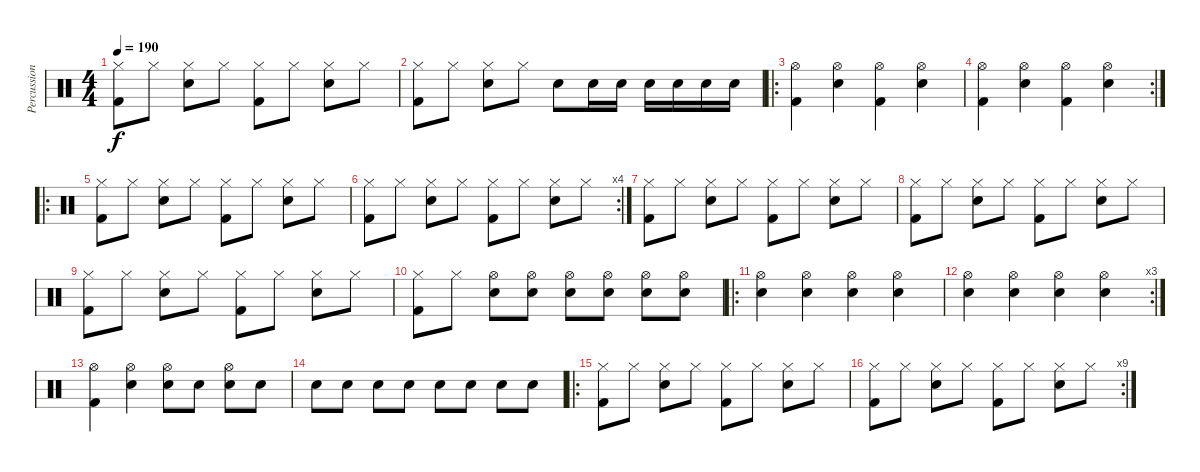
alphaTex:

\track ("Percussion" "Percussion") {instrument percussion}
\staff {score}
\articulation defaults
\ts (4 4)
\tempo 190
\clef neutral
\ks c
("Hi-Hat (closed)" "Kick (hit) 2").8{dy f} "Hi-Hat (closed)".8 ("Hi-Hat (closed)" "Snare (hit) 2").8 "Hi-Hat (closed)".8 ("Hi-Hat (closed)" "Kick (hit) 2").8 "Hi-Hat (closed)".8 ("Hi-Hat (closed)" "Snare (hit) 2").8 "Hi-Hat (closed)".8 |
("Hi-Hat (closed)" "Kick (hit) 2").8 "Hi-Hat (closed)".8 ("Hi-Hat (closed)" "Snare (hit) 2").8 "Hi-Hat (closed)".8 "Snare (hit) 2".8 "Snare (hit) 2".16 "Snare (hit) 2".16 "Snare (hit) 2".16 "Snare (hit) 2".16 "Snare (hit) 2".16 "Snare (hit) 2".16 |
\ro
("Hi-Hat (open)" "Kick (hit) 2").4 ("Hi-Hat (open)" "Snare (hit) 2").4 ("Hi-Hat (open)" "Kick (hit) 2").4 ("Hi-Hat (open)" "Snare (hit) 2").4 |
\rc 2
("Hi-Hat (open)" "Kick (hit) 2").4 ("Hi-Hat (open)" "Snare (hit) 2").4 ("Hi-Hat (open)" "Kick (hit) 2").4 ("Hi-Hat (open)" "Snare (hit) 2").4 |
\ro
("Hi-Hat (closed)" "Kick (hit) 2").8 "Hi-Hat (closed)".8 ("Hi-Hat (closed)" "Snare (hit) 2").8 "Hi-Hat (closed)".8 ("Hi-Hat (closed)" "Kick (hit) 2").8 "Hi-Hat (closed)".8 ("Hi-Hat (closed)" "Snare (hit) 2").8 "Hi-Hat (closed)".8 |
\rc 4
("Hi-Hat (closed)" "Kick (hit) 2").8 "Hi-Hat (closed)".8 ("Hi-Hat (closed)" "Snare (hit) 2").8 "Hi-Hat (closed)".8 ("Hi-Hat (closed)" "Kick (hit) 2").8 "Hi-Hat (closed)".8 ("Hi-Hat (closed)" "Snare (hit) 2").8 "Hi-Hat (closed)".8 |
("Hi-Hat (closed)" "Kick (hit) 2").8 "Hi-Hat (closed)".8 ("Hi-Hat (closed)" "Snare (hit) 2").8 "Hi-Hat (closed)".8 ("Hi-Hat (closed)" "Kick (hit) 2").8 "Hi-Hat (closed)".8 ("Hi-Hat (closed)" "Snare (hit) 2").8 "Hi-Hat (closed)".8 |
("Hi-Hat (closed)" "Kick (hit) 2").8 "Hi-Hat (closed)".8 ("Hi-Hat (closed)" "Snare (hit) 2").8 "Hi-Hat (closed)".8 ("Hi-Hat (closed)" "Kick (hit) 2").8 "Hi-Hat (closed)".8 ("Hi-Hat (closed)" "Snare (hit) 2").8 "Hi-Hat (closed)".8 |
("Hi-Hat (closed)" "Kick (hit) 2").8 "Hi-Hat (closed)".8 ("Hi-Hat (closed)" "Snare (hit) 2").8 "Hi-Hat (closed)".8 ("Hi-Hat (closed)" "Kick (hit) 2").8 "Hi-Hat (closed)".8 ("Hi-Hat (closed)" "Snare (hit) 2").8 "Hi-Hat (closed)".8 |
("Hi-Hat (closed)" "Kick (hit) 2").8 "Hi-Hat (closed)".8 ("Hi-Hat (open)" "Snare (hit) 2").8 ("Hi-Hat (open)" "Snare (hit) 2").8 ("Hi-Hat (open)" "Snare (hit) 2").8 ("Hi-Hat (open)" "Snare (hit) 2").8 ("Hi-Hat (open)" "Snare (hit) 2").8 ("Hi-Hat (open)" "Snare (hit) 2").8 |
\ro
("Hi-Hat (open)" "Snare (hit) 2").4 ("Hi-Hat (open)" "Snare (hit) 2").4 ("Hi-Hat (open)" "Snare (hit) 2").4 ("Hi-Hat (open)" "Snare (hit) 2").4 |
\rc 3
("Hi-Hat (open)" "Snare (hit) 2").4 ("Hi-Hat (open)" "Snare (hit) 2").4 ("Hi-Hat (open)" "Snare (hit) 2").4 ("Hi-Hat (open)" "Snare (hit) 2").4 |
("Hi-Hat (open)" "Kick (hit) 2").4 ("Hi-Hat (open)" "Snare (hit) 2").4 ("Hi-Hat (open)" "Snare (hit) 2").8 "Snare (hit) 2".8 ("Hi-Hat (open)" "Snare (hit) 2").8 "Snare (hit) 2".8 |
"Snare (hit) 2".8 "Snare (hit) 2".8 "Snare (hit) 2".8 "Snare (hit) 2".8 "Snare (hit) 2".8 "Snare (hit) 2".8 "Snare (hit) 2".8 "Snare (hit) 2".8 |
\ro
("Hi-Hat (closed)" "Kick (hit) 2").8 "Hi-Hat (closed)".8 ("Hi-Hat (closed)" "Snare (hit) 2").8 "Hi-Hat (closed)".8 ("Hi-Hat (closed)" "Kick (hit) 2").8 "Hi-Hat (closed)".8 ("Hi-Hat (closed)" "Snare (hit) 2").8 "Hi-Hat (closed)".8 |
\rc 9
("Hi-Hat (closed)" "Kick (hit) 2").8 "Hi-Hat (closed)".8 ("Hi-Hat (closed)" "Snare (hit) 2").8 "Hi-Hat (closed)".8 ("Hi-Hat (closed)" "Kick (hit) 2").8 "Hi-Hat (closed)".8 ("Hi-Hat (closed)" "Snare (hit) 2").8 "Hi-Hat (closed)".8
